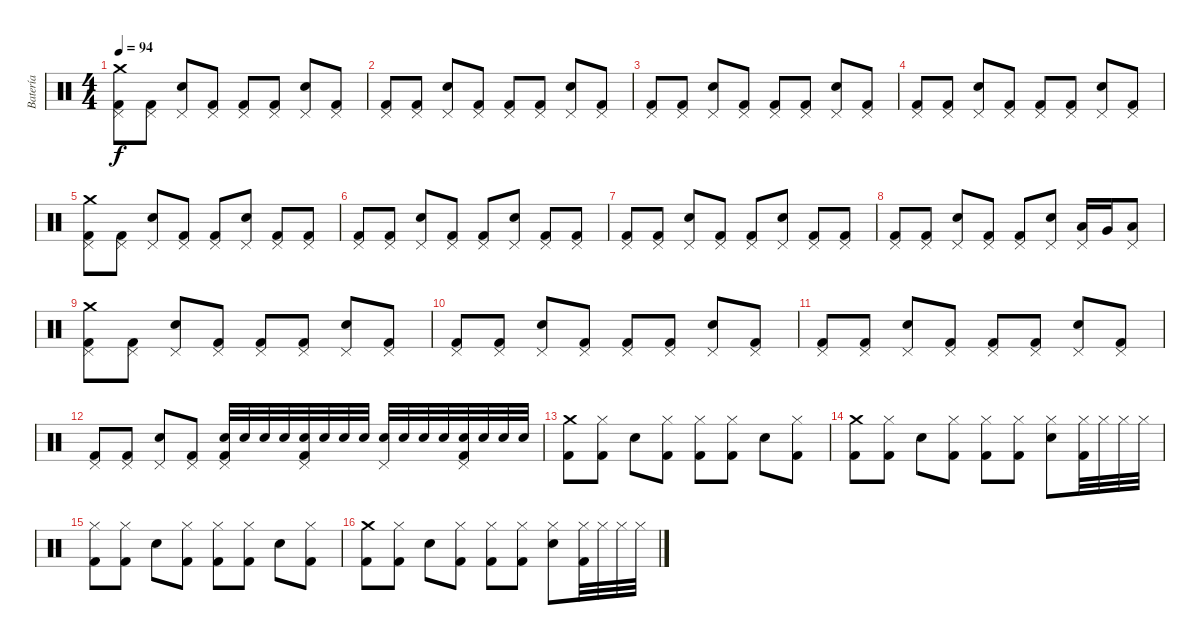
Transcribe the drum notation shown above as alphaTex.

\track ("Batería" "Batería") {instrument percussion}
\staff {score}
\articulation defaults
\ts (4 4)
\tempo 94
\clef neutral
\ks c
("Crash medium (hit)" "Pedal Hi-Hat (hit)" "Kick (hit) 2").8{dy f} ("Pedal Hi-Hat (hit)" "Kick (hit) 2").8 ("Pedal Hi-Hat (hit)" "Snare (hit) 2").8 ("Pedal Hi-Hat (hit)" "Kick (hit) 2").8 ("Pedal Hi-Hat (hit)" "Kick (hit) 2").8 ("Pedal Hi-Hat (hit)" "Kick (hit) 2").8 ("Pedal Hi-Hat (hit)" "Snare (hit) 2").8 ("Pedal Hi-Hat (hit)" "Kick (hit) 2").8 |
("Pedal Hi-Hat (hit)" "Kick (hit) 2").8 ("Pedal Hi-Hat (hit)" "Kick (hit) 2").8 ("Pedal Hi-Hat (hit)" "Snare (hit) 2").8 ("Kick (hit) 2" "Pedal Hi-Hat (hit)").8 ("Kick (hit) 2" "Pedal Hi-Hat (hit)").8 ("Kick (hit) 2" "Pedal Hi-Hat (hit)").8 ("Snare (hit) 2" "Pedal Hi-Hat (hit)").8 ("Kick (hit) 2" "Pedal Hi-Hat (hit)").8 |
("Kick (hit) 2" "Pedal Hi-Hat (hit)").8 ("Kick (hit) 2" "Pedal Hi-Hat (hit)").8 ("Snare (hit) 2" "Pedal Hi-Hat (hit)").8 ("Kick (hit) 2" "Pedal Hi-Hat (hit)").8 ("Kick (hit) 2" "Pedal Hi-Hat (hit)").8 ("Kick (hit) 2" "Pedal Hi-Hat (hit)").8 ("Snare (hit) 2" "Pedal Hi-Hat (hit)").8 ("Kick (hit) 2" "Pedal Hi-Hat (hit)").8 |
("Kick (hit) 2" "Pedal Hi-Hat (hit)").8 ("Kick (hit) 2" "Pedal Hi-Hat (hit)").8 ("Snare (hit) 2" "Pedal Hi-Hat (hit)").8 ("Kick (hit) 2" "Pedal Hi-Hat (hit)").8 ("Kick (hit) 2" "Pedal Hi-Hat (hit)").8 ("Kick (hit) 2" "Pedal Hi-Hat (hit)").8 ("Snare (hit) 2" "Pedal Hi-Hat (hit)").8 ("Kick (hit) 2" "Pedal Hi-Hat (hit)").8 |
("Crash medium (hit)" "Pedal Hi-Hat (hit)" "Kick (hit) 2").8 ("Pedal Hi-Hat (hit)" "Kick (hit) 2").8 ("Pedal Hi-Hat (hit)" "Snare (hit) 2").8 ("Pedal Hi-Hat (hit)" "Kick (hit) 2").8 ("Pedal Hi-Hat (hit)" "Kick (hit) 2").8 ("Pedal Hi-Hat (hit)" "Snare (hit) 2").8 ("Pedal Hi-Hat (hit)" "Kick (hit) 2").8 ("Pedal Hi-Hat (hit)" "Kick (hit) 2").8 |
("Pedal Hi-Hat (hit)" "Kick (hit) 2").8 ("Pedal Hi-Hat (hit)" "Kick (hit) 2").8 ("Pedal Hi-Hat (hit)" "Snare (hit) 2").8 ("Kick (hit) 2" "Pedal Hi-Hat (hit)").8 ("Kick (hit) 2" "Pedal Hi-Hat (hit)").8 ("Snare (hit) 2" "Pedal Hi-Hat (hit)").8 ("Kick (hit) 2" "Pedal Hi-Hat (hit)").8 ("Kick (hit) 2" "Pedal Hi-Hat (hit)").8 |
("Kick (hit) 2" "Pedal Hi-Hat (hit)").8 ("Kick (hit) 2" "Pedal Hi-Hat (hit)").8 ("Snare (hit) 2" "Pedal Hi-Hat (hit)").8 ("Kick (hit) 2" "Pedal Hi-Hat (hit)").8 ("Kick (hit) 2" "Pedal Hi-Hat (hit)").8 ("Snare (hit) 2" "Pedal Hi-Hat (hit)").8 ("Kick (hit) 2" "Pedal Hi-Hat (hit)").8 ("Kick (hit) 2" "Pedal Hi-Hat (hit)").8 |
("Kick (hit) 2" "Pedal Hi-Hat (hit)").8 ("Kick (hit) 2" "Pedal Hi-Hat (hit)").8 ("Snare (hit) 2" "Pedal Hi-Hat (hit)").8 ("Kick (hit) 2" "Pedal Hi-Hat (hit)").8 ("Kick (hit) 2" "Pedal Hi-Hat (hit)").8 ("Snare (hit) 2" "Pedal Hi-Hat (hit)").8 ("Low Tom (hit)" "Pedal Hi-Hat (hit)").16 "Very Low Tom (hit)".16 ("Low Floor Tom (hit)" "Pedal Hi-Hat (hit)").8 |
("Crash medium (hit)" "Pedal Hi-Hat (hit)" "Kick (hit) 2").8 ("Pedal Hi-Hat (hit)" "Kick (hit) 2").8 ("Pedal Hi-Hat (hit)" "Snare (hit) 2").8 ("Pedal Hi-Hat (hit)" "Kick (hit) 2").8 ("Pedal Hi-Hat (hit)" "Kick (hit) 2").8 ("Pedal Hi-Hat (hit)" "Kick (hit) 2").8 ("Pedal Hi-Hat (hit)" "Snare (hit) 2").8 ("Pedal Hi-Hat (hit)" "Kick (hit) 2").8 |
("Pedal Hi-Hat (hit)" "Kick (hit) 2").8 ("Pedal Hi-Hat (hit)" "Kick (hit) 2").8 ("Pedal Hi-Hat (hit)" "Snare (hit) 2").8 ("Kick (hit) 2" "Pedal Hi-Hat (hit)").8 ("Kick (hit) 2" "Pedal Hi-Hat (hit)").8 ("Kick (hit) 2" "Pedal Hi-Hat (hit)").8 ("Snare (hit) 2" "Pedal Hi-Hat (hit)").8 ("Kick (hit) 2" "Pedal Hi-Hat (hit)").8 |
("Kick (hit) 2" "Pedal Hi-Hat (hit)").8 ("Kick (hit) 2" "Pedal Hi-Hat (hit)").8 ("Snare (hit) 2" "Pedal Hi-Hat (hit)").8 ("Kick (hit) 2" "Pedal Hi-Hat (hit)").8 ("Kick (hit) 2" "Pedal Hi-Hat (hit)").8 ("Kick (hit) 2" "Pedal Hi-Hat (hit)").8 ("Snare (hit) 2" "Pedal Hi-Hat (hit)").8 ("Kick (hit) 2" "Pedal Hi-Hat (hit)").8 |
("Kick (hit) 2" "Pedal Hi-Hat (hit)").8 ("Kick (hit) 2" "Pedal Hi-Hat (hit)").8 ("Snare (hit) 2" "Pedal Hi-Hat (hit)").8 ("Kick (hit) 2" "Pedal Hi-Hat (hit)").8 ("Snare (hit) 2" "Kick (hit) 2" "Pedal Hi-Hat (hit)").32 "Snare (hit) 2".32 "Snare (hit) 2".32 "Snare (hit) 2".32 ("Snare (hit) 2" "Kick (hit) 2" "Pedal Hi-Hat (hit)").32 "Snare (hit) 2".32 "Snare (hit) 2".32 "Snare (hit) 2".32 ("Snare (hit) 2" "Pedal Hi-Hat (hit)").32 "Snare (hit) 2".32 "Snare (hit) 2".32 "Snare (hit) 2".32 ("Snare (hit) 2" "Kick (hit) 2" "Pedal Hi-Hat (hit)").32 "Snare (hit) 2".32 "Snare (hit) 2".32 "Snare (hit) 2".32 |
("Crash medium (hit)" "Kick (hit) 2").8 ("Hi-Hat (closed)" "Kick (hit) 2").8 "Snare (hit) 2".8 ("Hi-Hat (closed)" "Kick (hit) 2").8 ("Hi-Hat (closed)" "Kick (hit) 2").8 ("Hi-Hat (closed)" "Kick (hit) 2").8 "Snare (hit) 2".8 ("Hi-Hat (closed)" "Kick (hit) 2").8 |
("Crash medium (hit)" "Kick (hit) 2").8 ("Hi-Hat (closed)" "Kick (hit) 2").8 "Snare (hit) 2".8 ("Hi-Hat (closed)" "Kick (hit) 2").8 ("Hi-Hat (closed)" "Kick (hit) 2").8 ("Hi-Hat (closed)" "Kick (hit) 2").8 ("Hi-Hat (closed)" "Snare (hit) 2").8 ("Hi-Hat (closed)" "Kick (hit) 2").32 "Hi-Hat (closed)".32 "Hi-Hat (closed)".32 "Hi-Hat (closed)".32 |
("Hi-Hat (closed)" "Kick (hit) 2").8 ("Hi-Hat (closed)" "Kick (hit) 2").8 "Snare (hit) 2".8 ("Hi-Hat (closed)" "Kick (hit) 2").8 ("Hi-Hat (closed)" "Kick (hit) 2").8 ("Hi-Hat (closed)" "Kick (hit) 2").8 "Snare (hit) 2".8 ("Hi-Hat (closed)" "Kick (hit) 2").8 |
("Crash medium (hit)" "Kick (hit) 2").8 ("Hi-Hat (closed)" "Kick (hit) 2").8 "Snare (hit) 2".8 ("Hi-Hat (closed)" "Kick (hit) 2").8 ("Hi-Hat (closed)" "Kick (hit) 2").8 ("Hi-Hat (closed)" "Kick (hit) 2").8 ("Hi-Hat (closed)" "Snare (hit) 2").8 ("Hi-Hat (closed)" "Kick (hit) 2").32 "Hi-Hat (closed)".32 "Hi-Hat (closed)".32 "Hi-Hat (closed)".32
